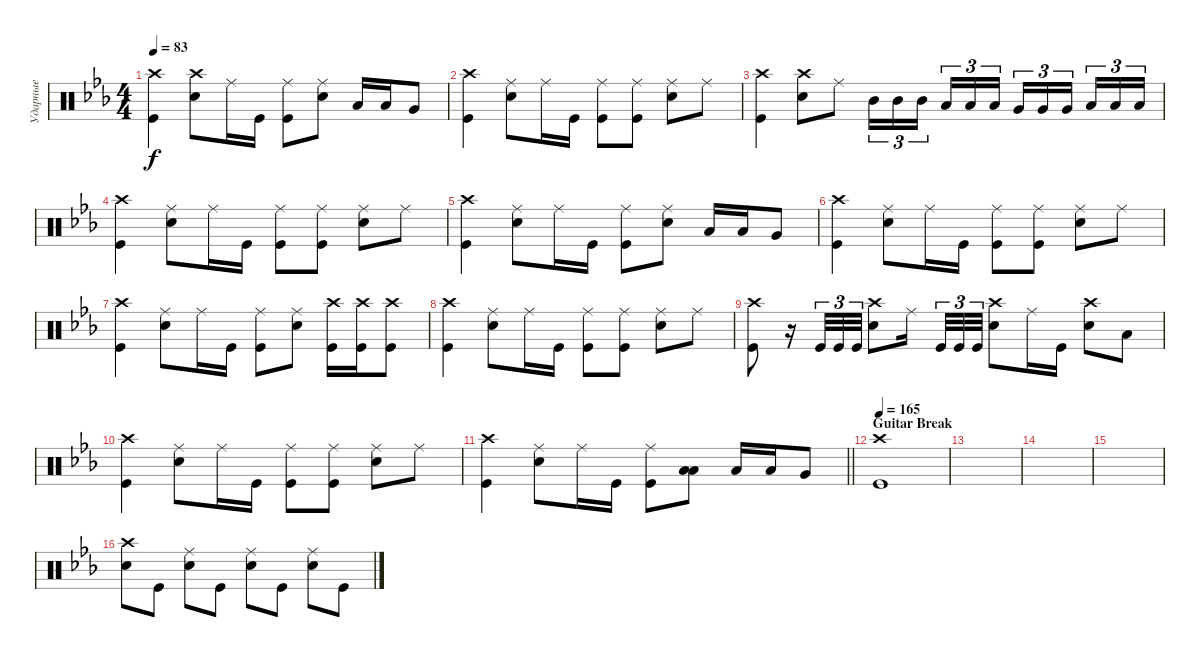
\track ("Ударные" "Ударные") {instrument percussion}
\staff {score}
\articulation defaults
\ts (4 4)
\tempo 83
\clef neutral
\ks cminor
("Kick (hit)" "Crash high (hit)").4{dy f} ("Snare (hit) 2" "Crash high (hit)").8 "Ride (middle)".16 "Kick (hit)".16 ("Kick (hit)" "Ride (middle)").8 ("Snare (hit) 2" "Ride (middle)").8 "Low Tom (hit)".16 "Low Tom (hit)".16 "Very Low Tom (hit)".8 |
("Kick (hit)" "Crash high (hit)").4 ("Snare (hit) 2" "Ride (middle)").8 "Ride (middle)".16 "Kick (hit)".16 ("Kick (hit)" "Ride (middle)").8 ("Kick (hit)" "Ride (middle)").8 ("Snare (hit) 2" "Ride (middle)").8 "Ride (middle)".8 |
("Kick (hit)" "Crash high (hit)").4 ("Snare (hit) 2" "Crash high (hit)").8 "Ride (middle)".8 "Mid Tom (hit)".16{tu (3 2)} "Mid Tom (hit)".16{tu (3 2)} "Mid Tom (hit)".16{tu (3 2) beam splitsecondary} "Low Tom (hit)".16{tu (3 2)} "Low Tom (hit)".16{tu (3 2)} "Low Tom (hit)".16{tu (3 2)} "Very Low Tom (hit)".16{tu (3 2)} "Very Low Tom (hit)".16{tu (3 2)} "Very Low Tom (hit)".16{tu (3 2) beam splitsecondary} "Low Floor Tom (hit)".16{tu (3 2)} "Low Floor Tom (hit)".16{tu (3 2)} "Low Floor Tom (hit)".16{tu (3 2)} |
("Kick (hit)" "Crash high (hit)").4 ("Snare (hit) 2" "Ride (middle)").8 "Ride (middle)".16 "Kick (hit)".16 ("Kick (hit)" "Ride (middle)").8 ("Kick (hit)" "Ride (middle)").8 ("Snare (hit) 2" "Ride (middle)").8 "Ride (middle)".8 |
("Kick (hit)" "Crash high (hit)").4 ("Snare (hit) 2" "Ride (middle)").8 "Ride (middle)".16 "Kick (hit)".16 ("Kick (hit)" "Ride (middle)").8 ("Snare (hit) 2" "Ride (middle)").8 "Low Tom (hit)".16 "Low Tom (hit)".16 "Very Low Tom (hit)".8 |
("Kick (hit)" "Crash high (hit)").4 ("Snare (hit) 2" "Ride (middle)").8 "Ride (middle)".16 "Kick (hit)".16 ("Kick (hit)" "Ride (middle)").8 ("Kick (hit)" "Ride (middle)").8 ("Snare (hit) 2" "Ride (middle)").8 "Ride (middle)".8 |
("Kick (hit)" "Crash high (hit)").4 ("Snare (hit) 2" "Ride (middle)").8 "Ride (middle)".16 "Kick (hit)".16 ("Kick (hit)" "Ride (middle)").8 ("Snare (hit) 2" "Ride (middle)").8 ("Crash high (hit)" "Kick (hit)").16 ("Crash high (hit)" "Kick (hit)").16 ("Kick (hit)" "Crash high (hit)").8 |
("Kick (hit)" "Crash high (hit)").4 ("Snare (hit) 2" "Ride (middle)").8 "Ride (middle)".16 "Kick (hit)".16 ("Kick (hit)" "Ride (middle)").8 ("Kick (hit)" "Ride (middle)").8 ("Snare (hit) 2" "Ride (middle)").8 "Ride (middle)".8 |
("Kick (hit)" "Crash high (hit)").8 r.16 "Kick (hit)".32{tu (3 2)} "Kick (hit)".32{tu (3 2)} "Kick (hit)".32{tu (3 2)} ("Snare (hit) 2" "Crash high (hit)").8 "Ride (middle)".16{beam splitsecondary} "Kick (hit)".32{tu (3 2)} "Kick (hit)".32{tu (3 2)} "Kick (hit)".32{tu (3 2)} ("Snare (hit) 2" "Crash high (hit)").8 "Ride (middle)".16 "Kick (hit)".16 ("Snare (hit) 2" "Crash high (hit)").8 "Low Tom (hit)".8 |
("Kick (hit)" "Crash high (hit)").4 ("Snare (hit) 2" "Ride (middle)").8 "Ride (middle)".16 "Kick (hit)".16 ("Kick (hit)" "Ride (middle)").8 ("Kick (hit)" "Ride (middle)").8 ("Snare (hit) 2" "Ride (middle)").8 "Ride (middle)".8 |
\barLineRight lightlight
("Kick (hit)" "Crash high (hit)").4 ("Snare (hit) 2" "Ride (middle)").8 "Ride (middle)".16 "Kick (hit)".16 ("Kick (hit)" "Ride (middle)").8 ("Low Tom (hit)" "Low Tom (hit)").8{bd 240} "Low Tom (hit)".16 "Low Tom (hit)".16 "Very Low Tom (hit)".8 |
\section ("" "Guitar Break")
\tempo 165
("Kick (hit)" "Crash high (hit)").1 |
|
|
|
("Snare (hit) 2" "Crash high (hit)").8 "Kick (hit)".8 ("Snare (hit) 2" "Ride (middle)").8 "Kick (hit)".8 ("Snare (hit) 2" "Ride (middle)").8 "Kick (hit)".8 ("Snare (hit) 2" "Ride (middle)").8 "Kick (hit)".8
